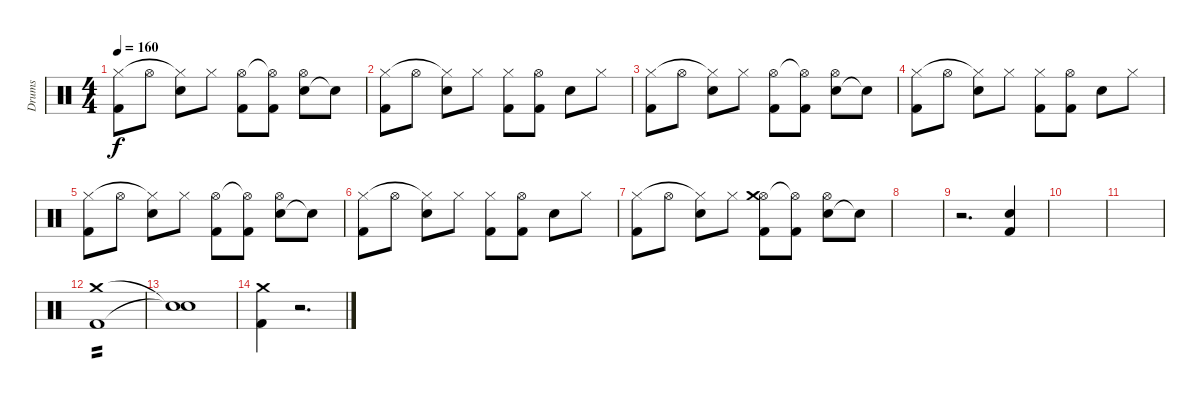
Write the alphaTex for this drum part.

\track ("Drums" "Drums") {instrument percussion}
\staff {score}
\articulation defaults
\ts (4 4)
\tempo 160
\clef neutral
\ks c
("Kick (hit) 2" "Hi-Hat (closed)").8{dy f} "Hi-Hat (open)".8 ("Snare (hit) 2" "Hi-Hat (closed)"{t}).8 "Hi-Hat (closed)".8 ("Kick (hit) 2" "Hi-Hat (open)").8 ("Kick (hit) 2" "Hi-Hat (open)"{t}).8 ("Snare (hit) 2" "Hi-Hat (open)").8 "Snare (hit)"{t}.8 |
("Kick (hit) 2" "Hi-Hat (closed)").8 "Hi-Hat (open)".8 ("Snare (hit) 2" "Hi-Hat (closed)"{t}).8 "Hi-Hat (closed)".8 ("Kick (hit) 2" "Hi-Hat (closed)").8 ("Kick (hit) 2" "Hi-Hat (open)").8 "Snare (hit) 2".8 "Hi-Hat (closed)".8 |
("Kick (hit) 2" "Hi-Hat (closed)").8 "Hi-Hat (open)".8 ("Snare (hit) 2" "Hi-Hat (closed)"{t}).8 "Hi-Hat (closed)".8 ("Kick (hit) 2" "Hi-Hat (open)").8 ("Kick (hit) 2" "Hi-Hat (open)"{t}).8 ("Snare (hit) 2" "Hi-Hat (open)").8 "Snare (hit)"{t}.8 |
("Kick (hit) 2" "Hi-Hat (closed)").8 "Hi-Hat (open)".8 ("Snare (hit) 2" "Hi-Hat (closed)"{t}).8 "Hi-Hat (closed)".8 ("Kick (hit) 2" "Hi-Hat (closed)").8 ("Kick (hit) 2" "Hi-Hat (open)").8 "Snare (hit) 2".8 "Hi-Hat (closed)".8 |
("Kick (hit) 2" "Hi-Hat (closed)").8 "Hi-Hat (open)".8 ("Snare (hit) 2" "Hi-Hat (closed)"{t}).8 "Hi-Hat (closed)".8 ("Kick (hit) 2" "Hi-Hat (open)").8 ("Kick (hit) 2" "Hi-Hat (open)"{t}).8 ("Snare (hit) 2" "Hi-Hat (open)").8 "Snare (hit)"{t}.8 |
("Kick (hit) 2" "Hi-Hat (closed)").8 "Hi-Hat (open)".8 ("Snare (hit) 2" "Hi-Hat (closed)"{t}).8 "Hi-Hat (closed)".8 ("Kick (hit) 2" "Hi-Hat (closed)").8 ("Kick (hit) 2" "Hi-Hat (open)").8 "Snare (hit) 2".8 "Hi-Hat (closed)".8 |
("Kick (hit) 2" "Hi-Hat (closed)").8 "Hi-Hat (open)".8 ("Snare (hit) 2" "Hi-Hat (closed)"{t}).8 "Hi-Hat (closed)".8 ("Kick (hit) 2" "Hi-Hat (open)" "Crash medium (hit)").8 ("Kick (hit) 2" "Hi-Hat (open)"{t}).8 ("Snare (hit) 2" "Hi-Hat (open)").8 "Snare (hit)"{t}.8 |
|
r.2{d} ("Snare (hit) 2" "Kick (hit) 2").4 |
|
|
("Kick (hit) 2" "Crash medium (hit)").1{tp 2} |
("Snare (hit)"{t} "Snare (hit)"{t}).1 |
("Kick (hit) 2" "Crash medium (hit)").4 r.2{d}
